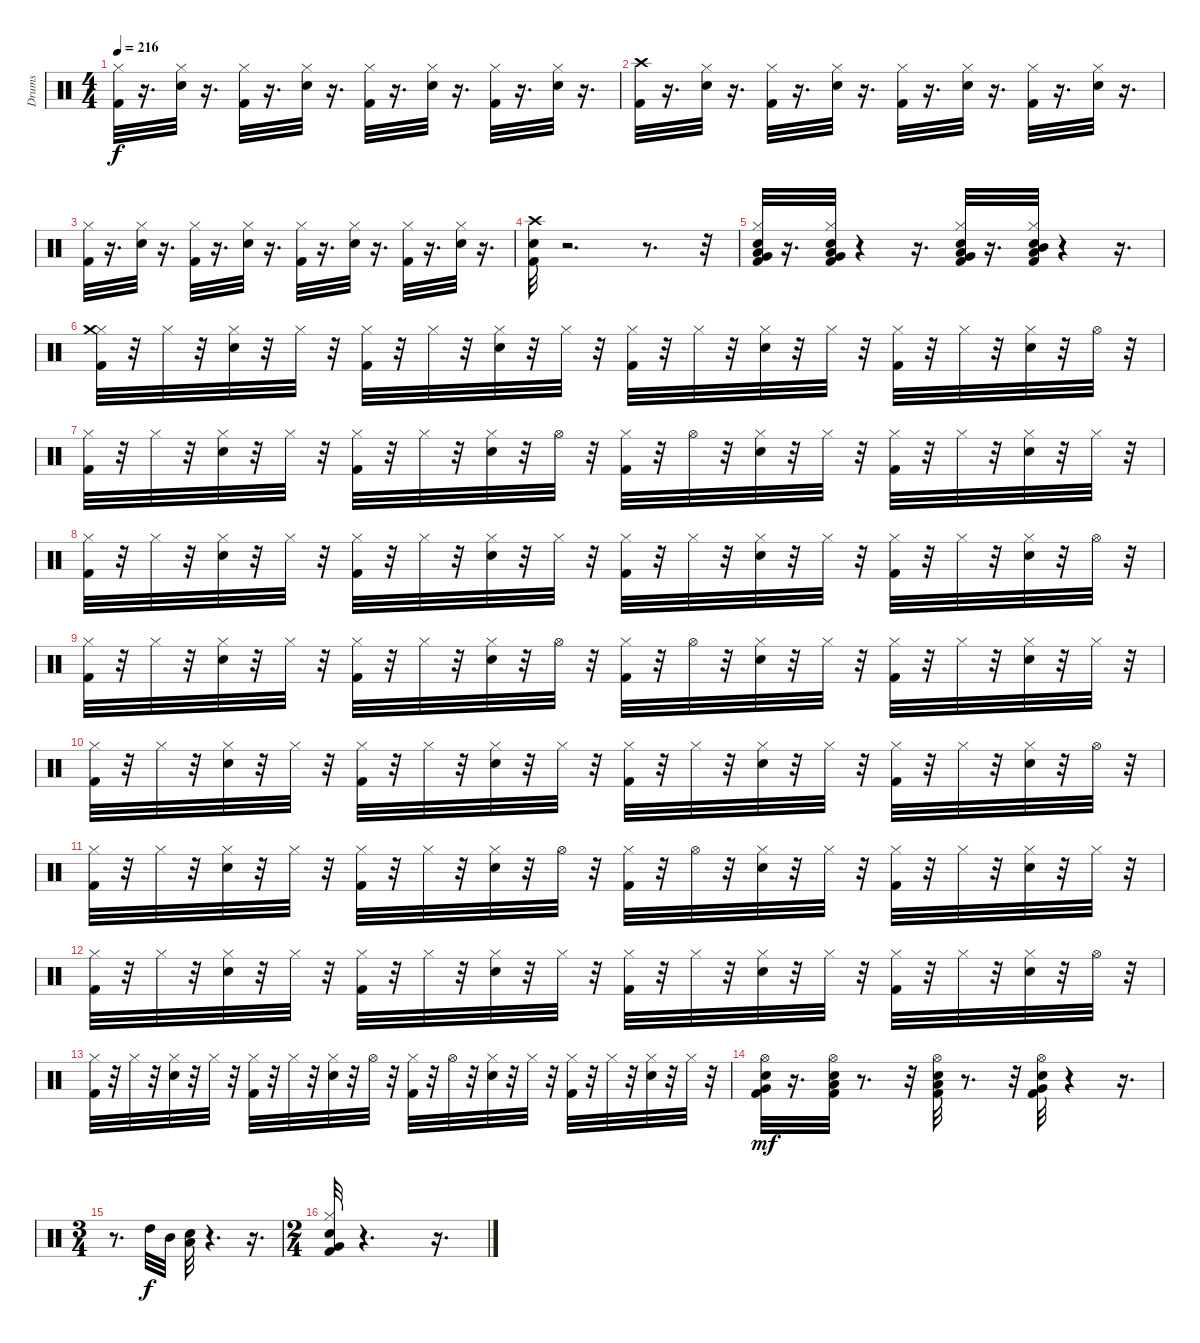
\track ("Drums" "Drums") {instrument percussion}
\staff {score}
\articulation defaults
\ts (4 4)
\tempo 216
\clef neutral
\ks c
("Kick (hit) 2" "Hi-Hat (closed)").32{dy f} r.16{d} ("Snare (hit) 2" "Hi-Hat (closed)").32 r.16{d} ("Kick (hit) 2" "Hi-Hat (closed)").32 r.16{d} ("Snare (hit) 2" "Hi-Hat (closed)").32 r.16{d} ("Kick (hit) 2" "Hi-Hat (closed)").32 r.16{d} ("Snare (hit) 2" "Hi-Hat (closed)").32 r.16{d} ("Kick (hit) 2" "Hi-Hat (closed)").32 r.16{d} ("Snare (hit) 2" "Hi-Hat (closed)").32 r.16{d} |
("Kick (hit) 2" "Crash high (hit)").32 r.16{d} ("Snare (hit) 2" "Hi-Hat (closed)").32 r.16{d} ("Kick (hit) 2" "Hi-Hat (closed)").32 r.16{d} ("Snare (hit) 2" "Hi-Hat (closed)").32 r.16{d} ("Kick (hit) 2" "Hi-Hat (closed)").32 r.16{d} ("Snare (hit) 2" "Hi-Hat (closed)").32 r.16{d} ("Kick (hit) 2" "Hi-Hat (closed)").32 r.16{d} ("Snare (hit) 2" "Hi-Hat (closed)").32 r.16{d} |
("Kick (hit) 2" "Hi-Hat (closed)").32 r.16{d} ("Snare (hit) 2" "Hi-Hat (closed)").32 r.16{d} ("Kick (hit) 2" "Hi-Hat (closed)").32 r.16{d} ("Snare (hit) 2" "Hi-Hat (closed)").32 r.16{d} ("Kick (hit) 2" "Hi-Hat (closed)").32 r.16{d} ("Snare (hit) 2" "Hi-Hat (closed)").32 r.16{d} ("Kick (hit) 2" "Hi-Hat (closed)").32 r.16{d} ("Snare (hit) 2" "Hi-Hat (closed)").32 r.16{d} |
("Kick (hit) 2" "Snare (hit) 2" "Crash high (hit)").32 r.2{d} r.8{d} r.32 |
("Kick (hit) 2" "Snare (hit) 2" "Low Floor Tom (hit)" "Hi-Hat (closed)" "Very Low Tom (hit)").32 r.16{d} ("Kick (hit) 2" "Snare (hit) 2" "Hi-Hat (closed)" "Very Low Tom (hit)" "Low Tom (hit)").32 r.4 r.16{d} ("Kick (hit) 2" "Snare (hit) 2" "Hi-Hat (closed)" "Very Low Tom (hit)" "Low Tom (hit)").32 r.16{d} ("Kick (hit) 2" "Snare (hit) 2" "Hi-Hat (closed)" "Low Tom (hit)" "Mid Tom (hit)").32 r.4 r.16{d} |
("Kick (hit) 2" "Hi-Hat (closed)" "Crash medium (hit)").32 r.32 "Hi-Hat (closed)".32 r.32 ("Snare (hit) 2" "Hi-Hat (closed)").32 r.32 "Hi-Hat (closed)".32 r.32 ("Kick (hit) 2" "Hi-Hat (closed)").32 r.32 "Hi-Hat (closed)".32 r.32 ("Snare (hit) 2" "Hi-Hat (closed)").32 r.32 "Hi-Hat (closed)".32 r.32 ("Kick (hit) 2" "Hi-Hat (closed)").32 r.32 "Hi-Hat (closed)".32 r.32 ("Snare (hit) 2" "Hi-Hat (closed)").32 r.32 "Hi-Hat (closed)".32 r.32 ("Kick (hit) 2" "Hi-Hat (closed)").32 r.32 "Hi-Hat (closed)".32 r.32 ("Snare (hit) 2" "Hi-Hat (closed)").32 r.32 "Hi-Hat (open)".32 r.32 |
("Kick (hit) 2" "Hi-Hat (closed)").32 r.32 "Hi-Hat (closed)".32 r.32 ("Snare (hit) 2" "Hi-Hat (closed)").32 r.32 "Hi-Hat (closed)".32 r.32 ("Kick (hit) 2" "Hi-Hat (closed)").32 r.32 "Hi-Hat (closed)".32 r.32 ("Snare (hit) 2" "Hi-Hat (closed)").32 r.32 "Hi-Hat (open)".32 r.32 ("Kick (hit) 2" "Hi-Hat (closed)").32 r.32 "Hi-Hat (open)".32 r.32 ("Snare (hit) 2" "Hi-Hat (closed)").32 r.32 "Hi-Hat (closed)".32 r.32 ("Kick (hit) 2" "Hi-Hat (closed)").32 r.32 "Hi-Hat (closed)".32 r.32 ("Snare (hit) 2" "Hi-Hat (closed)").32 r.32 "Hi-Hat (closed)".32 r.32 |
("Kick (hit) 2" "Hi-Hat (closed)").32 r.32 "Hi-Hat (closed)".32 r.32 ("Snare (hit) 2" "Hi-Hat (closed)").32 r.32 "Hi-Hat (closed)".32 r.32 ("Kick (hit) 2" "Hi-Hat (closed)").32 r.32 "Hi-Hat (closed)".32 r.32 ("Snare (hit) 2" "Hi-Hat (closed)").32 r.32 "Hi-Hat (closed)".32 r.32 ("Kick (hit) 2" "Hi-Hat (closed)").32 r.32 "Hi-Hat (closed)".32 r.32 ("Snare (hit) 2" "Hi-Hat (closed)").32 r.32 "Hi-Hat (closed)".32 r.32 ("Kick (hit) 2" "Hi-Hat (closed)").32 r.32 "Hi-Hat (closed)".32 r.32 ("Snare (hit) 2" "Hi-Hat (closed)").32 r.32 "Hi-Hat (open)".32 r.32 |
("Kick (hit) 2" "Hi-Hat (closed)").32 r.32 "Hi-Hat (closed)".32 r.32 ("Snare (hit) 2" "Hi-Hat (closed)").32 r.32 "Hi-Hat (closed)".32 r.32 ("Kick (hit) 2" "Hi-Hat (closed)").32 r.32 "Hi-Hat (closed)".32 r.32 ("Snare (hit) 2" "Hi-Hat (closed)").32 r.32 "Hi-Hat (open)".32 r.32 ("Kick (hit) 2" "Hi-Hat (closed)").32 r.32 "Hi-Hat (open)".32 r.32 ("Snare (hit) 2" "Hi-Hat (closed)").32 r.32 "Hi-Hat (closed)".32 r.32 ("Kick (hit) 2" "Hi-Hat (closed)").32 r.32 "Hi-Hat (closed)".32 r.32 ("Snare (hit) 2" "Hi-Hat (closed)").32 r.32 "Hi-Hat (closed)".32 r.32 |
("Kick (hit) 2" "Hi-Hat (closed)").32 r.32 "Hi-Hat (closed)".32 r.32 ("Snare (hit) 2" "Hi-Hat (closed)").32 r.32 "Hi-Hat (closed)".32 r.32 ("Kick (hit) 2" "Hi-Hat (closed)").32 r.32 "Hi-Hat (closed)".32 r.32 ("Snare (hit) 2" "Hi-Hat (closed)").32 r.32 "Hi-Hat (closed)".32 r.32 ("Kick (hit) 2" "Hi-Hat (closed)").32 r.32 "Hi-Hat (closed)".32 r.32 ("Snare (hit) 2" "Hi-Hat (closed)").32 r.32 "Hi-Hat (closed)".32 r.32 ("Kick (hit) 2" "Hi-Hat (closed)").32 r.32 "Hi-Hat (closed)".32 r.32 ("Snare (hit) 2" "Hi-Hat (closed)").32 r.32 "Hi-Hat (open)".32 r.32 |
("Kick (hit) 2" "Hi-Hat (closed)").32 r.32 "Hi-Hat (closed)".32 r.32 ("Snare (hit) 2" "Hi-Hat (closed)").32 r.32 "Hi-Hat (closed)".32 r.32 ("Kick (hit) 2" "Hi-Hat (closed)").32 r.32 "Hi-Hat (closed)".32 r.32 ("Snare (hit) 2" "Hi-Hat (closed)").32 r.32 "Hi-Hat (open)".32 r.32 ("Kick (hit) 2" "Hi-Hat (closed)").32 r.32 "Hi-Hat (open)".32 r.32 ("Snare (hit) 2" "Hi-Hat (closed)").32 r.32 "Hi-Hat (closed)".32 r.32 ("Kick (hit) 2" "Hi-Hat (closed)").32 r.32 "Hi-Hat (closed)".32 r.32 ("Snare (hit) 2" "Hi-Hat (closed)").32 r.32 "Hi-Hat (closed)".32 r.32 |
("Kick (hit) 2" "Hi-Hat (closed)").32 r.32 "Hi-Hat (closed)".32 r.32 ("Snare (hit) 2" "Hi-Hat (closed)").32 r.32 "Hi-Hat (closed)".32 r.32 ("Kick (hit) 2" "Hi-Hat (closed)").32 r.32 "Hi-Hat (closed)".32 r.32 ("Snare (hit) 2" "Hi-Hat (closed)").32 r.32 "Hi-Hat (closed)".32 r.32 ("Kick (hit) 2" "Hi-Hat (closed)").32 r.32 "Hi-Hat (closed)".32 r.32 ("Snare (hit) 2" "Hi-Hat (closed)").32 r.32 "Hi-Hat (closed)".32 r.32 ("Kick (hit) 2" "Hi-Hat (closed)").32 r.32 "Hi-Hat (closed)".32 r.32 ("Snare (hit) 2" "Hi-Hat (closed)").32 r.32 "Hi-Hat (open)".32 r.32 |
("Kick (hit) 2" "Hi-Hat (closed)").32 r.32 "Hi-Hat (closed)".32 r.32 ("Snare (hit) 2" "Hi-Hat (closed)").32 r.32 "Hi-Hat (closed)".32 r.32 ("Kick (hit) 2" "Hi-Hat (closed)").32 r.32 "Hi-Hat (closed)".32 r.32 ("Snare (hit) 2" "Hi-Hat (closed)").32 r.32 "Hi-Hat (open)".32 r.32 ("Kick (hit) 2" "Hi-Hat (closed)").32 r.32 "Hi-Hat (open)".32 r.32 ("Snare (hit) 2" "Hi-Hat (closed)").32 r.32 "Hi-Hat (closed)".32 r.32 ("Kick (hit) 2" "Hi-Hat (closed)").32 r.32 "Hi-Hat (closed)".32 r.32 ("Snare (hit) 2" "Hi-Hat (closed)").32 r.32 "Hi-Hat (closed)".32 r.32 |
("Kick (hit) 2" "Snare (hit) 2" "Very Low Tom (hit)" "Hi-Hat (open)").32{dy mf} r.16{d} ("Kick (hit) 2" "Snare (hit) 2" "Low Tom (hit)" "Hi-Hat (open)").32 r.8{d} r.32 ("Kick (hit) 2" "Snare (hit) 2" "Low Tom (hit)" "Hi-Hat (open)").32 r.8{d} r.32 ("Kick (hit) 2" "Snare (hit) 2" "Very Low Tom (hit)" "Hi-Hat (open)").32 r.4 r.16{d} |
\ts (3 4)
r.8{d} "High Tom (hit)".32{dy f} "Mid Tom (hit)".32 ("Snare (hit) 2" "Low Tom (hit)").32 r.4{d} r.16{d} |
\ts (2 4)
("Kick (hit) 2" "Snare (hit) 2" "Hi-Hat (closed)" "Very Low Tom (hit)").32 r.4{d} r.16{d}
